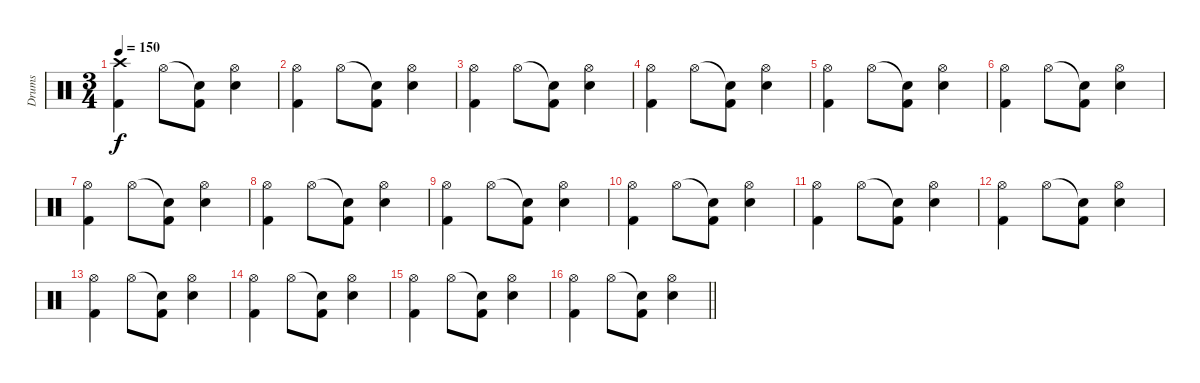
\track ("Drums" "Drums") {instrument percussion}
\staff {score}
\articulation defaults
\ts (3 4)
\tempo 150
\clef neutral
\ks c
("Crash high (hit)" "Kick (hit) 2").4{dy f} "Hi-Hat (open)".8 ("Snare (hit)"{t} "Kick (hit) 2").8 ("Hi-Hat (open)" "Snare (hit) 2").4 |
("Hi-Hat (open)" "Kick (hit) 2").4 "Hi-Hat (open)".8 ("Snare (hit)"{t} "Kick (hit) 2").8 ("Hi-Hat (open)" "Snare (hit) 2").4 |
("Hi-Hat (open)" "Kick (hit) 2").4 "Hi-Hat (open)".8 ("Snare (hit)"{t} "Kick (hit) 2").8 ("Hi-Hat (open)" "Snare (hit) 2").4 |
("Hi-Hat (open)" "Kick (hit) 2").4 "Hi-Hat (open)".8 ("Snare (hit)"{t} "Kick (hit) 2").8 ("Hi-Hat (open)" "Snare (hit) 2").4 |
("Hi-Hat (open)" "Kick (hit) 2").4 "Hi-Hat (open)".8 ("Snare (hit)"{t} "Kick (hit) 2").8 ("Hi-Hat (open)" "Snare (hit) 2").4 |
("Hi-Hat (open)" "Kick (hit) 2").4 "Hi-Hat (open)".8 ("Snare (hit)"{t} "Kick (hit) 2").8 ("Hi-Hat (open)" "Snare (hit) 2").4 |
("Hi-Hat (open)" "Kick (hit) 2").4 "Hi-Hat (open)".8 ("Snare (hit)"{t} "Kick (hit) 2").8 ("Hi-Hat (open)" "Snare (hit) 2").4 |
("Hi-Hat (open)" "Kick (hit) 2").4 "Hi-Hat (open)".8 ("Snare (hit)"{t} "Kick (hit) 2").8 ("Hi-Hat (open)" "Snare (hit) 2").4 |
("Hi-Hat (open)" "Kick (hit) 2").4 "Hi-Hat (open)".8 ("Snare (hit)"{t} "Kick (hit) 2").8 ("Hi-Hat (open)" "Snare (hit) 2").4 |
("Hi-Hat (open)" "Kick (hit) 2").4 "Hi-Hat (open)".8 ("Snare (hit)"{t} "Kick (hit) 2").8 ("Hi-Hat (open)" "Snare (hit) 2").4 |
("Hi-Hat (open)" "Kick (hit) 2").4 "Hi-Hat (open)".8 ("Snare (hit)"{t} "Kick (hit) 2").8 ("Hi-Hat (open)" "Snare (hit) 2").4 |
("Hi-Hat (open)" "Kick (hit) 2").4 "Hi-Hat (open)".8 ("Snare (hit)"{t} "Kick (hit) 2").8 ("Hi-Hat (open)" "Snare (hit) 2").4 |
("Hi-Hat (open)" "Kick (hit) 2").4 "Hi-Hat (open)".8 ("Snare (hit)"{t} "Kick (hit) 2").8 ("Hi-Hat (open)" "Snare (hit) 2").4 |
("Hi-Hat (open)" "Kick (hit) 2").4 "Hi-Hat (open)".8 ("Snare (hit)"{t} "Kick (hit) 2").8 ("Hi-Hat (open)" "Snare (hit) 2").4 |
("Hi-Hat (open)" "Kick (hit) 2").4 "Hi-Hat (open)".8 ("Snare (hit)"{t} "Kick (hit) 2").8 ("Hi-Hat (open)" "Snare (hit) 2").4 |
\barLineRight lightlight
("Hi-Hat (open)" "Kick (hit) 2").4 "Hi-Hat (open)".8 ("Snare (hit)"{t} "Kick (hit) 2").8 ("Hi-Hat (open)" "Snare (hit) 2").4
